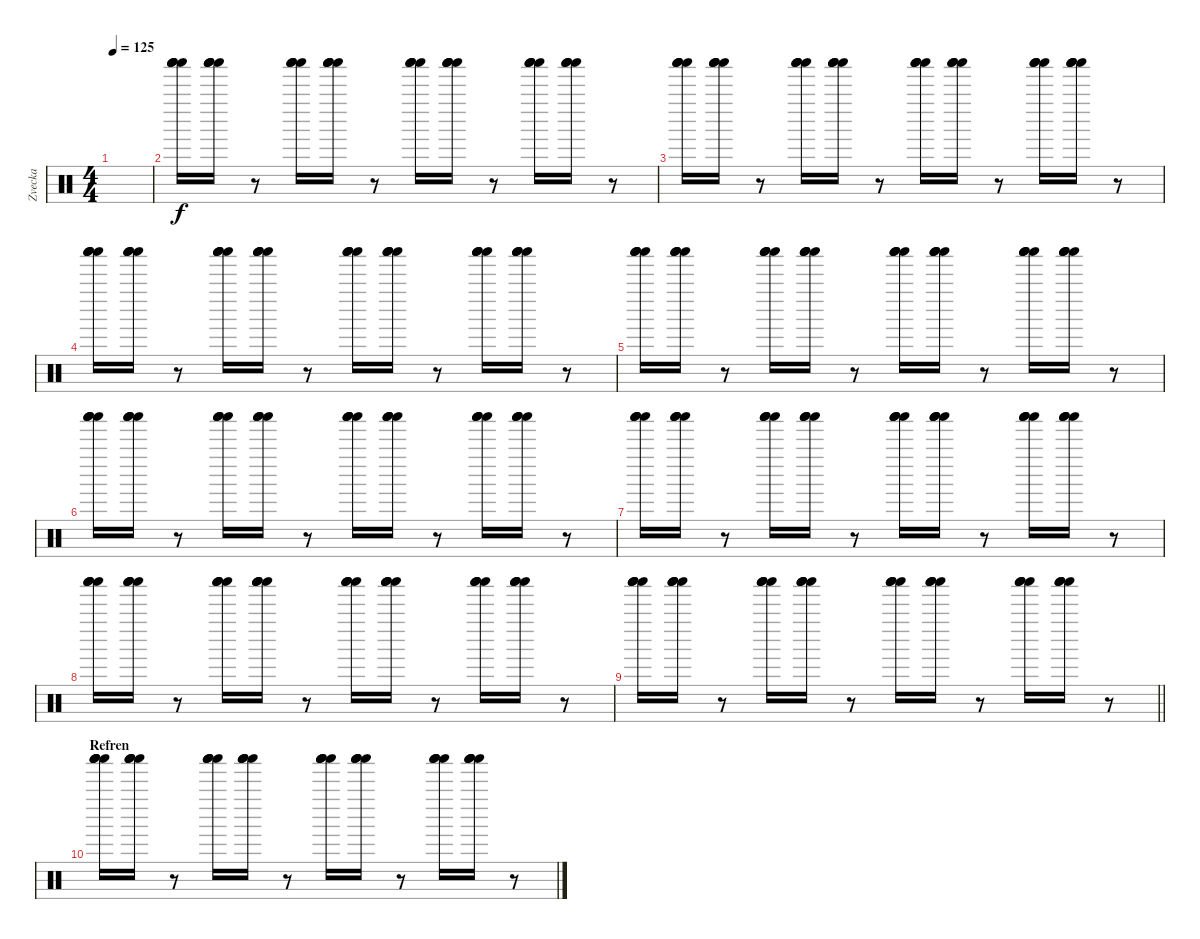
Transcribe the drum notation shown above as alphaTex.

\track ("Zvecka " "Zvecka ") {instrument percussion}
\staff {score}
\articulation defaults
\ts (4 4)
\tempo 125
\clef neutral
\ks c
|
("Shaker (hit)" "Shaker (hit)" "Shaker (hit)" "Shaker (hit)").16 ("Shaker (hit)" "Shaker (hit)" "Shaker (hit)" "Shaker (hit)").16 r.8 ("Shaker (hit)" "Shaker (hit)" "Shaker (hit)" "Shaker (hit)").16 ("Shaker (hit)" "Shaker (hit)" "Shaker (hit)" "Shaker (hit)").16 r.8 ("Shaker (hit)" "Shaker (hit)" "Shaker (hit)" "Shaker (hit)").16 ("Shaker (hit)" "Shaker (hit)" "Shaker (hit)" "Shaker (hit)").16 r.8 ("Shaker (hit)" "Shaker (hit)" "Shaker (hit)" "Shaker (hit)").16 ("Shaker (hit)" "Shaker (hit)" "Shaker (hit)" "Shaker (hit)").16 r.8 |
("Shaker (hit)" "Shaker (hit)" "Shaker (hit)" "Shaker (hit)").16 ("Shaker (hit)" "Shaker (hit)" "Shaker (hit)" "Shaker (hit)").16 r.8 ("Shaker (hit)" "Shaker (hit)" "Shaker (hit)" "Shaker (hit)").16 ("Shaker (hit)" "Shaker (hit)" "Shaker (hit)" "Shaker (hit)").16 r.8 ("Shaker (hit)" "Shaker (hit)" "Shaker (hit)" "Shaker (hit)").16 ("Shaker (hit)" "Shaker (hit)" "Shaker (hit)" "Shaker (hit)").16 r.8 ("Shaker (hit)" "Shaker (hit)" "Shaker (hit)" "Shaker (hit)").16 ("Shaker (hit)" "Shaker (hit)" "Shaker (hit)" "Shaker (hit)").16 r.8 |
("Shaker (hit)" "Shaker (hit)" "Shaker (hit)" "Shaker (hit)").16 ("Shaker (hit)" "Shaker (hit)" "Shaker (hit)" "Shaker (hit)").16 r.8 ("Shaker (hit)" "Shaker (hit)" "Shaker (hit)" "Shaker (hit)").16 ("Shaker (hit)" "Shaker (hit)" "Shaker (hit)" "Shaker (hit)").16 r.8 ("Shaker (hit)" "Shaker (hit)" "Shaker (hit)" "Shaker (hit)").16 ("Shaker (hit)" "Shaker (hit)" "Shaker (hit)" "Shaker (hit)").16 r.8 ("Shaker (hit)" "Shaker (hit)" "Shaker (hit)" "Shaker (hit)").16 ("Shaker (hit)" "Shaker (hit)" "Shaker (hit)" "Shaker (hit)").16 r.8 |
("Shaker (hit)" "Shaker (hit)" "Shaker (hit)" "Shaker (hit)").16 ("Shaker (hit)" "Shaker (hit)" "Shaker (hit)" "Shaker (hit)").16 r.8 ("Shaker (hit)" "Shaker (hit)" "Shaker (hit)" "Shaker (hit)").16 ("Shaker (hit)" "Shaker (hit)" "Shaker (hit)" "Shaker (hit)").16 r.8 ("Shaker (hit)" "Shaker (hit)" "Shaker (hit)" "Shaker (hit)").16 ("Shaker (hit)" "Shaker (hit)" "Shaker (hit)" "Shaker (hit)").16 r.8 ("Shaker (hit)" "Shaker (hit)" "Shaker (hit)" "Shaker (hit)").16 ("Shaker (hit)" "Shaker (hit)" "Shaker (hit)" "Shaker (hit)").16 r.8 |
("Shaker (hit)" "Shaker (hit)" "Shaker (hit)" "Shaker (hit)").16 ("Shaker (hit)" "Shaker (hit)" "Shaker (hit)" "Shaker (hit)").16 r.8 ("Shaker (hit)" "Shaker (hit)" "Shaker (hit)" "Shaker (hit)").16 ("Shaker (hit)" "Shaker (hit)" "Shaker (hit)" "Shaker (hit)").16 r.8 ("Shaker (hit)" "Shaker (hit)" "Shaker (hit)" "Shaker (hit)").16 ("Shaker (hit)" "Shaker (hit)" "Shaker (hit)" "Shaker (hit)").16 r.8 ("Shaker (hit)" "Shaker (hit)" "Shaker (hit)" "Shaker (hit)").16 ("Shaker (hit)" "Shaker (hit)" "Shaker (hit)" "Shaker (hit)").16 r.8 |
("Shaker (hit)" "Shaker (hit)" "Shaker (hit)" "Shaker (hit)").16 ("Shaker (hit)" "Shaker (hit)" "Shaker (hit)" "Shaker (hit)").16 r.8 ("Shaker (hit)" "Shaker (hit)" "Shaker (hit)" "Shaker (hit)").16 ("Shaker (hit)" "Shaker (hit)" "Shaker (hit)" "Shaker (hit)").16 r.8 ("Shaker (hit)" "Shaker (hit)" "Shaker (hit)" "Shaker (hit)").16 ("Shaker (hit)" "Shaker (hit)" "Shaker (hit)" "Shaker (hit)").16 r.8 ("Shaker (hit)" "Shaker (hit)" "Shaker (hit)" "Shaker (hit)").16 ("Shaker (hit)" "Shaker (hit)" "Shaker (hit)" "Shaker (hit)").16 r.8 |
("Shaker (hit)" "Shaker (hit)" "Shaker (hit)" "Shaker (hit)").16 ("Shaker (hit)" "Shaker (hit)" "Shaker (hit)" "Shaker (hit)").16 r.8 ("Shaker (hit)" "Shaker (hit)" "Shaker (hit)" "Shaker (hit)").16 ("Shaker (hit)" "Shaker (hit)" "Shaker (hit)" "Shaker (hit)").16 r.8 ("Shaker (hit)" "Shaker (hit)" "Shaker (hit)" "Shaker (hit)").16 ("Shaker (hit)" "Shaker (hit)" "Shaker (hit)" "Shaker (hit)").16 r.8 ("Shaker (hit)" "Shaker (hit)" "Shaker (hit)" "Shaker (hit)").16 ("Shaker (hit)" "Shaker (hit)" "Shaker (hit)" "Shaker (hit)").16 r.8 |
\barLineRight lightlight
("Shaker (hit)" "Shaker (hit)" "Shaker (hit)" "Shaker (hit)").16 ("Shaker (hit)" "Shaker (hit)" "Shaker (hit)" "Shaker (hit)").16 r.8 ("Shaker (hit)" "Shaker (hit)" "Shaker (hit)" "Shaker (hit)").16 ("Shaker (hit)" "Shaker (hit)" "Shaker (hit)" "Shaker (hit)").16 r.8 ("Shaker (hit)" "Shaker (hit)" "Shaker (hit)" "Shaker (hit)").16 ("Shaker (hit)" "Shaker (hit)" "Shaker (hit)" "Shaker (hit)").16 r.8 ("Shaker (hit)" "Shaker (hit)" "Shaker (hit)" "Shaker (hit)").16 ("Shaker (hit)" "Shaker (hit)" "Shaker (hit)" "Shaker (hit)").16 r.8 |
\section ("" "Refren")
("Shaker (hit)" "Shaker (hit)" "Shaker (hit)" "Shaker (hit)").16 ("Shaker (hit)" "Shaker (hit)" "Shaker (hit)" "Shaker (hit)").16 r.8 ("Shaker (hit)" "Shaker (hit)" "Shaker (hit)" "Shaker (hit)").16 ("Shaker (hit)" "Shaker (hit)" "Shaker (hit)" "Shaker (hit)").16 r.8 ("Shaker (hit)" "Shaker (hit)" "Shaker (hit)" "Shaker (hit)").16 ("Shaker (hit)" "Shaker (hit)" "Shaker (hit)" "Shaker (hit)").16 r.8 ("Shaker (hit)" "Shaker (hit)" "Shaker (hit)" "Shaker (hit)").16 ("Shaker (hit)" "Shaker (hit)" "Shaker (hit)" "Shaker (hit)").16 r.8
